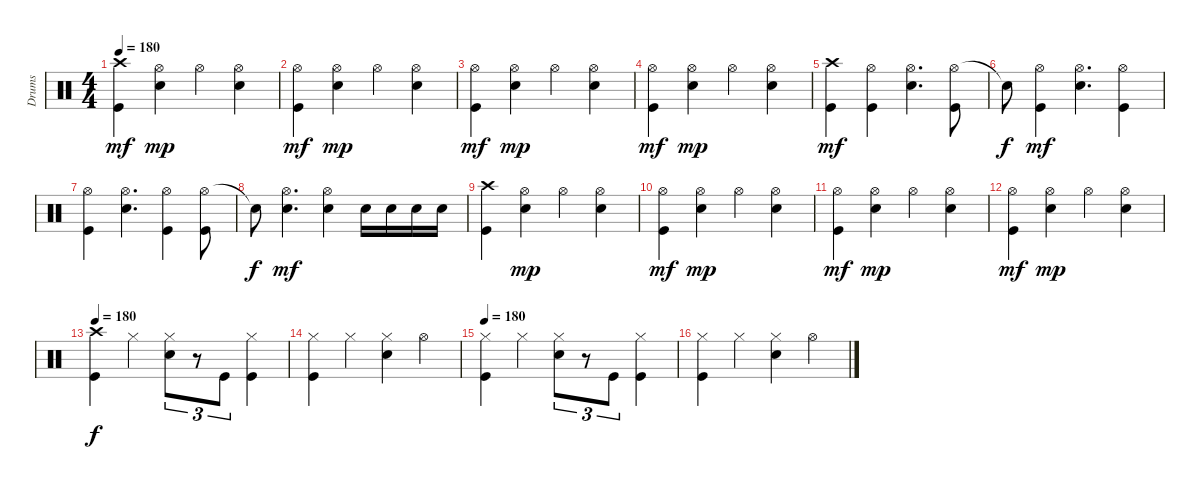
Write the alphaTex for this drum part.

\track ("Drums" "Drums") {instrument percussion}
\staff {score}
\articulation defaults
\ts (4 4)
\tempo 180
\clef neutral
\ks c
("Crash high (hit)" "Kick (hit)").4{dy mf} ("Hi-Hat (open)" "Electric Snare (hit)").4{dy mp} "Hi-Hat (open)".4 ("Hi-Hat (open)" "Electric Snare (hit)").4 |
("Hi-Hat (open)" "Kick (hit)").4{dy mf} ("Hi-Hat (open)" "Electric Snare (hit)").4{dy mp} "Hi-Hat (open)".4 ("Hi-Hat (open)" "Electric Snare (hit)").4 |
("Hi-Hat (open)" "Kick (hit)").4{dy mf} ("Hi-Hat (open)" "Electric Snare (hit)").4{dy mp} "Hi-Hat (open)".4 ("Hi-Hat (open)" "Electric Snare (hit)").4 |
("Hi-Hat (open)" "Kick (hit)").4{dy mf} ("Hi-Hat (open)" "Electric Snare (hit)").4{dy mp} "Hi-Hat (open)".4 ("Hi-Hat (open)" "Electric Snare (hit)").4 |
("Crash high (hit)" "Kick (hit)").4{dy mf} ("Hi-Hat (open)" "Kick (hit)").4 ("Hi-Hat (open)" "Electric Snare (hit)").4{d} ("Hi-Hat (open)" "Kick (hit)").8 |
"Snare (hit)"{t}.8{dy f} ("Hi-Hat (open)" "Kick (hit)").4{dy mf} ("Hi-Hat (open)" "Electric Snare (hit)").4{d} ("Hi-Hat (open)" "Kick (hit)").4 |
("Hi-Hat (open)" "Kick (hit)").4 ("Hi-Hat (open)" "Electric Snare (hit)").4{d} ("Hi-Hat (open)" "Kick (hit)").4 ("Hi-Hat (open)" "Kick (hit)").8 |
"Snare (hit)"{t}.8{dy f} ("Hi-Hat (open)" "Electric Snare (hit)").4{d dy mf} ("Hi-Hat (open)" "Electric Snare (hit)").4 "Electric Snare (hit)".16 "Electric Snare (hit)".16 "Electric Snare (hit)".16 "Electric Snare (hit)".16 |
("Crash high (hit)" "Kick (hit)").4 ("Hi-Hat (open)" "Electric Snare (hit)").4{dy mp} "Hi-Hat (open)".4 ("Hi-Hat (open)" "Electric Snare (hit)").4 |
("Hi-Hat (open)" "Kick (hit)").4{dy mf} ("Hi-Hat (open)" "Electric Snare (hit)").4{dy mp} "Hi-Hat (open)".4 ("Hi-Hat (open)" "Electric Snare (hit)").4 |
("Hi-Hat (open)" "Kick (hit)").4{dy mf} ("Hi-Hat (open)" "Electric Snare (hit)").4{dy mp} "Hi-Hat (open)".4 ("Hi-Hat (open)" "Electric Snare (hit)").4 |
("Hi-Hat (open)" "Kick (hit)").4{dy mf} ("Hi-Hat (open)" "Electric Snare (hit)").4{dy mp} "Hi-Hat (open)".4 ("Hi-Hat (open)" "Electric Snare (hit)").4 |
\tempo 180
("Crash high (hit)" "Kick (hit)").4{dy f} "Hi-Hat (closed)".4 ("Hi-Hat (closed)" "Electric Snare (hit)").8{tu (3 2)} r.8{tu (3 2)} "Kick (hit)".8{tu (3 2)} ("Hi-Hat (closed)" "Kick (hit)").4 |
("Hi-Hat (closed)" "Kick (hit)").4 "Hi-Hat (closed)".4 ("Hi-Hat (closed)" "Electric Snare (hit)").4 "Hi-Hat (open)".4 |
\tempo 180
("Hi-Hat (closed)" "Kick (hit)").4 "Hi-Hat (closed)".4 ("Hi-Hat (closed)" "Electric Snare (hit)").8{tu (3 2)} r.8{tu (3 2)} "Kick (hit)".8{tu (3 2)} ("Hi-Hat (closed)" "Kick (hit)").4 |
("Hi-Hat (closed)" "Kick (hit)").4 "Hi-Hat (closed)".4 ("Hi-Hat (closed)" "Electric Snare (hit)").4 "Hi-Hat (open)".4
